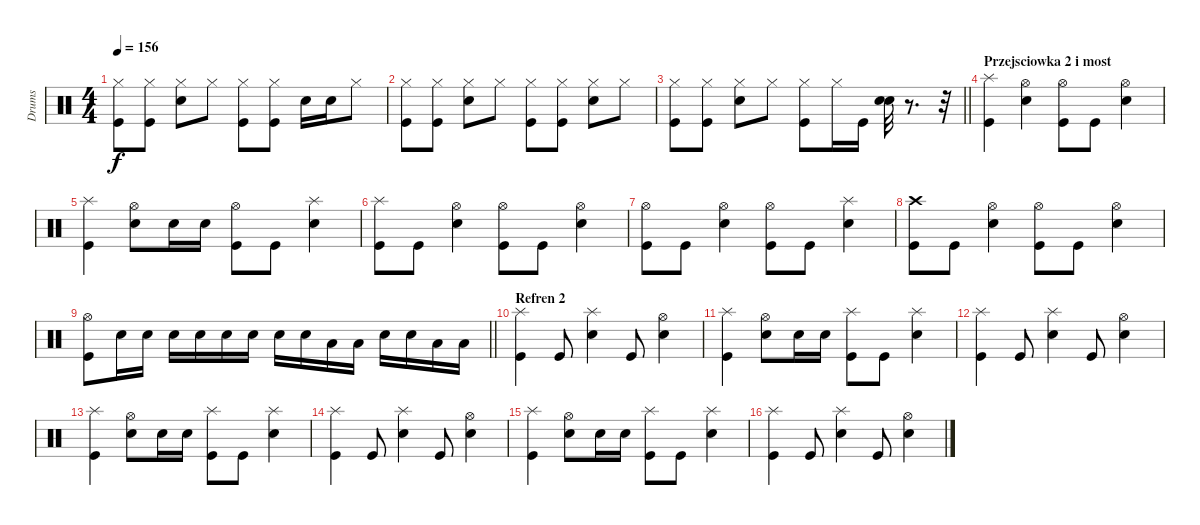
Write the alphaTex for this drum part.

\track ("Drums" "Drums") {instrument percussion}
\staff {score}
\articulation defaults
\ts (4 4)
\tempo 156
\clef neutral
\ks c
("Hi-Hat (closed)" "Kick (hit)").8{dy f} ("Hi-Hat (closed)" "Kick (hit)").8 ("Hi-Hat (closed)" "Snare (hit) 2").8 "Hi-Hat (closed)".8 ("Hi-Hat (closed)" "Kick (hit)").8 ("Hi-Hat (closed)" "Kick (hit)").8 "Snare (hit) 2".16 "Snare (hit) 2".16 "Hi-Hat (closed)".8 |
("Hi-Hat (closed)" "Kick (hit)").8 ("Hi-Hat (closed)" "Kick (hit)").8 ("Hi-Hat (closed)" "Snare (hit) 2").8 "Hi-Hat (closed)".8 ("Hi-Hat (closed)" "Kick (hit)").8 ("Hi-Hat (closed)" "Kick (hit)").8 ("Hi-Hat (closed)" "Snare (hit) 2").8 "Hi-Hat (closed)".8 |
\barLineRight lightlight
("Hi-Hat (closed)" "Kick (hit)").8 ("Hi-Hat (closed)" "Kick (hit)").8 ("Hi-Hat (closed)" "Snare (hit) 2").8 "Hi-Hat (closed)".8 ("Hi-Hat (closed)" "Kick (hit)").8 "Hi-Hat (closed)".16 "Kick (hit)".16 ("Snare (hit) 2" "Snare (hit) 2").32 r.8{d} r.32 |
\section ("" "Przejsciowka 2 i most")
("Splash (hit)" "Kick (hit)").4 ("Hi-Hat (open)" "Snare (hit) 2").4 ("Hi-Hat (open)" "Kick (hit)").8 "Kick (hit)".8 ("Hi-Hat (open)" "Snare (hit) 2").4 |
("Splash (hit)" "Kick (hit)").4 ("Hi-Hat (open)" "Snare (hit) 2").8 "Snare (hit) 2".16 "Snare (hit) 2".16 ("Hi-Hat (open)" "Kick (hit)").8 "Kick (hit)".8 ("Splash (hit)" "Snare (hit) 2").4 |
("Splash (hit)" "Kick (hit)").8 "Kick (hit)".8 ("Hi-Hat (open)" "Snare (hit) 2").4 ("Hi-Hat (open)" "Kick (hit)").8 "Kick (hit)".8 ("Hi-Hat (open)" "Snare (hit) 2").4 |
("Hi-Hat (open)" "Kick (hit)").8 "Kick (hit)".8 ("Hi-Hat (open)" "Snare (hit) 2").4 ("Hi-Hat (open)" "Kick (hit)").8 "Kick (hit)".8 ("Splash (hit)" "Snare (hit) 2").4 |
("Crash high (hit)" "Kick (hit)").8 "Kick (hit)".8 ("Hi-Hat (open)" "Snare (hit) 2").4 ("Hi-Hat (open)" "Kick (hit)").8 "Kick (hit)".8 ("Hi-Hat (open)" "Snare (hit) 2").4 |
\barLineRight lightlight
("Hi-Hat (open)" "Kick (hit)").8 "Snare (hit) 2".16 "Snare (hit) 2".16 "Snare (hit) 2".16 "Snare (hit) 2".16 "Snare (hit) 2".16 "Snare (hit) 2".16 "Snare (hit) 2".16 "Snare (hit) 2".16 "Low Tom (hit)".16 "Low Tom (hit)".16 "Snare (hit) 2".16 "Snare (hit) 2".16 "Low Tom (hit)".16 "Low Tom (hit)".16 |
\section ("" "Refren 2")
("Splash (hit)" "Kick (hit)").4 "Kick (hit)".8 ("Splash (hit)" "Snare (hit) 2").4 "Kick (hit)".8 ("Hi-Hat (open)" "Snare (hit) 2").4 |
("Splash (hit)" "Kick (hit)").4 ("Hi-Hat (open)" "Snare (hit) 2").8 "Snare (hit) 2".16 "Snare (hit) 2".16 ("Splash (hit)" "Kick (hit)").8 "Kick (hit)".8 ("Splash (hit)" "Snare (hit) 2").4 |
("Splash (hit)" "Kick (hit)").4 "Kick (hit)".8 ("Splash (hit)" "Snare (hit) 2").4 "Kick (hit)".8 ("Hi-Hat (open)" "Snare (hit) 2").4 |
("Splash (hit)" "Kick (hit)").4 ("Hi-Hat (open)" "Snare (hit) 2").8 "Snare (hit) 2".16 "Snare (hit) 2".16 ("Splash (hit)" "Kick (hit)").8 "Kick (hit)".8 ("Splash (hit)" "Snare (hit) 2").4 |
("Splash (hit)" "Kick (hit)").4 "Kick (hit)".8 ("Splash (hit)" "Snare (hit) 2").4 "Kick (hit)".8 ("Hi-Hat (open)" "Snare (hit) 2").4 |
("Splash (hit)" "Kick (hit)").4 ("Hi-Hat (open)" "Snare (hit) 2").8 "Snare (hit) 2".16 "Snare (hit) 2".16 ("Splash (hit)" "Kick (hit)").8 "Kick (hit)".8 ("Splash (hit)" "Snare (hit) 2").4 |
("Splash (hit)" "Kick (hit)").4 "Kick (hit)".8 ("Splash (hit)" "Snare (hit) 2").4 "Kick (hit)".8 ("Hi-Hat (open)" "Snare (hit) 2").4
